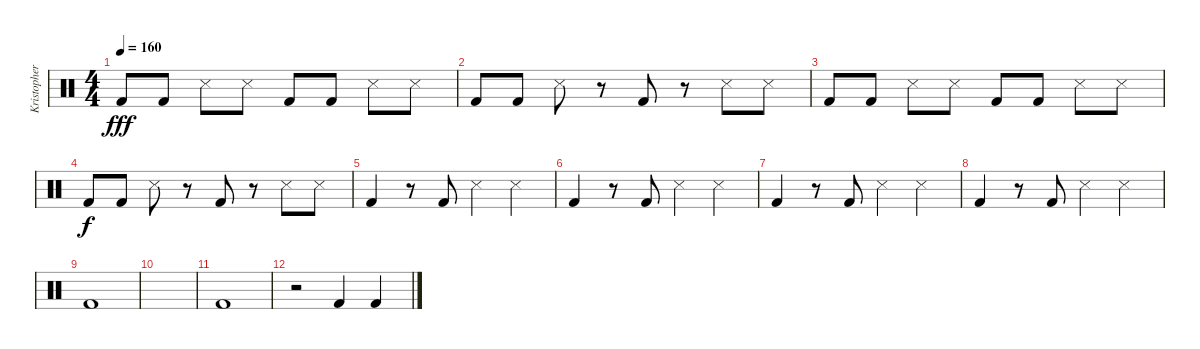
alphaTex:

\track ("Kristopher Schau (deep freezer,stove)" "Kristopher") {instrument percussion}
\staff {score}
\articulation defaults
\ts (4 4)
\tempo 160
\clef neutral
\ks c "Kick (hit) 2".8{dy fff} "Kick (hit) 2".8 "Snare (side stick) 3".8 "Snare (side stick) 3".8 "Kick (hit) 2".8 "Kick (hit) 2".8 "Snare (side stick) 3".8 "Snare (side stick) 3".8
|
"Kick (hit) 2".8 "Kick (hit) 2".8 "Snare (side stick) 3".8 r.8 "Kick (hit) 2".8 r.8 "Snare (side stick) 3".8 "Snare (side stick) 3".8 |
"Kick (hit) 2".8 "Kick (hit) 2".8 "Snare (side stick) 3".8 "Snare (side stick) 3".8 "Kick (hit) 2".8 "Kick (hit) 2".8 "Snare (side stick) 3".8 "Snare (side stick) 3".8 |
"Kick (hit) 2".8{dy f} "Kick (hit) 2".8 "Snare (side stick) 3".8 r.8 "Kick (hit) 2".8 r.8 "Snare (side stick) 3".8 "Snare (side stick) 3".8 |
"Kick (hit) 2".4 r.8 "Kick (hit) 2".8 "Snare (side stick) 3".4 "Snare (side stick) 3".4 |
"Kick (hit) 2".4 r.8 "Kick (hit) 2".8 "Snare (side stick) 3".4 "Snare (side stick) 3".4 |
"Kick (hit) 2".4 r.8 "Kick (hit) 2".8 "Snare (side stick) 3".4 "Snare (side stick) 3".4 |
"Kick (hit) 2".4 r.8 "Kick (hit) 2".8 "Snare (side stick) 3".4 "Snare (side stick) 3".4 |
"Kick (hit) 2".1 |
|
"Kick (hit) 2".1 |
r.2 "Kick (hit) 2".4 "Kick (hit) 2".4
